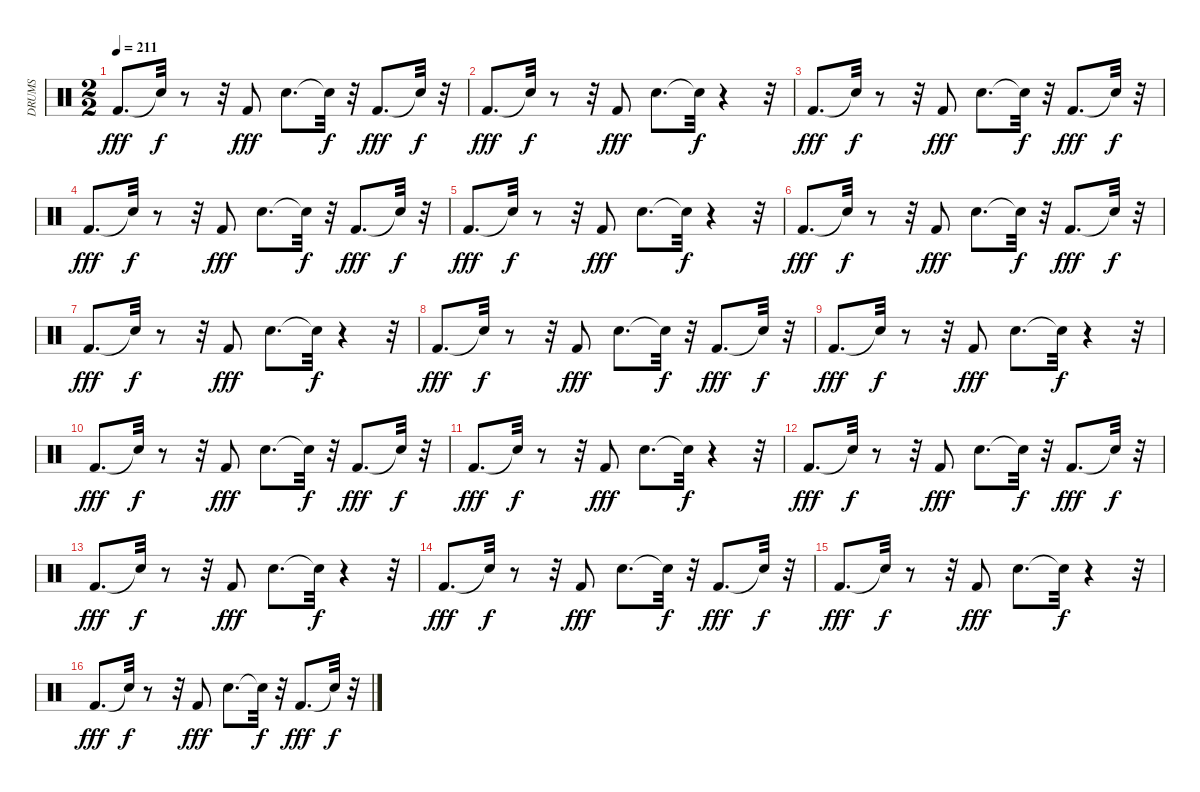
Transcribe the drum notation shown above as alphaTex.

\track ("DRUMS" "DRUMS") {instrument percussion}
\staff {score}
\articulation defaults
\ts (2 2)
\tempo 211
\clef neutral
\ks c "Kick (hit) 2".8{d dy fff} "Snare (hit)"{t}.32{dy f}
r.8 r.32 "Kick (hit) 2".8{dy fff} "Snare (hit) 2".8{d} "Snare (hit)"{t}.32{dy f} r.32 "Kick (hit) 2".8{d dy fff} "Snare (hit)"{t}.32{dy f} r.32 |
"Kick (hit) 2".8{d dy fff} "Snare (hit)"{t}.32{dy f} r.8 r.32 "Kick (hit) 2".8{dy fff} "Snare (hit) 2".8{d} "Snare (hit)"{t}.32{dy f} r.4 r.32 |
"Kick (hit) 2".8{d dy fff} "Snare (hit)"{t}.32{dy f} r.8 r.32 "Kick (hit) 2".8{dy fff} "Snare (hit) 2".8{d} "Snare (hit)"{t}.32{dy f} r.32 "Kick (hit) 2".8{d dy fff} "Snare (hit)"{t}.32{dy f} r.32 |
"Kick (hit) 2".8{d dy fff} "Snare (hit)"{t}.32{dy f} r.8 r.32 "Kick (hit) 2".8{dy fff} "Snare (hit) 2".8{d} "Snare (hit)"{t}.32{dy f} r.32 "Kick (hit) 2".8{d dy fff} "Snare (hit)"{t}.32{dy f} r.32 |
"Kick (hit) 2".8{d dy fff} "Snare (hit)"{t}.32{dy f} r.8 r.32 "Kick (hit) 2".8{dy fff} "Snare (hit) 2".8{d} "Snare (hit)"{t}.32{dy f} r.4 r.32 |
"Kick (hit) 2".8{d dy fff} "Snare (hit)"{t}.32{dy f} r.8 r.32 "Kick (hit) 2".8{dy fff} "Snare (hit) 2".8{d} "Snare (hit)"{t}.32{dy f} r.32 "Kick (hit) 2".8{d dy fff} "Snare (hit)"{t}.32{dy f} r.32 |
"Kick (hit) 2".8{d dy fff} "Snare (hit)"{t}.32{dy f} r.8 r.32 "Kick (hit) 2".8{dy fff} "Snare (hit) 2".8{d} "Snare (hit)"{t}.32{dy f} r.4 r.32 |
"Kick (hit) 2".8{d dy fff} "Snare (hit)"{t}.32{dy f} r.8 r.32 "Kick (hit) 2".8{dy fff} "Snare (hit) 2".8{d} "Snare (hit)"{t}.32{dy f} r.32 "Kick (hit) 2".8{d dy fff} "Snare (hit)"{t}.32{dy f} r.32 |
"Kick (hit) 2".8{d dy fff} "Snare (hit)"{t}.32{dy f} r.8 r.32 "Kick (hit) 2".8{dy fff} "Snare (hit) 2".8{d} "Snare (hit)"{t}.32{dy f} r.4 r.32 |
"Kick (hit) 2".8{d dy fff} "Snare (hit)"{t}.32{dy f} r.8 r.32 "Kick (hit) 2".8{dy fff} "Snare (hit) 2".8{d} "Snare (hit)"{t}.32{dy f} r.32 "Kick (hit) 2".8{d dy fff} "Snare (hit)"{t}.32{dy f} r.32 |
"Kick (hit) 2".8{d dy fff} "Snare (hit)"{t}.32{dy f} r.8 r.32 "Kick (hit) 2".8{dy fff} "Snare (hit) 2".8{d} "Snare (hit)"{t}.32{dy f} r.4 r.32 |
"Kick (hit) 2".8{d dy fff} "Snare (hit)"{t}.32{dy f} r.8 r.32 "Kick (hit) 2".8{dy fff} "Snare (hit) 2".8{d} "Snare (hit)"{t}.32{dy f} r.32 "Kick (hit) 2".8{d dy fff} "Snare (hit)"{t}.32{dy f} r.32 |
"Kick (hit) 2".8{d dy fff} "Snare (hit)"{t}.32{dy f} r.8 r.32 "Kick (hit) 2".8{dy fff} "Snare (hit) 2".8{d} "Snare (hit)"{t}.32{dy f} r.4 r.32 |
"Kick (hit) 2".8{d dy fff} "Snare (hit)"{t}.32{dy f} r.8 r.32 "Kick (hit) 2".8{dy fff} "Snare (hit) 2".8{d} "Snare (hit)"{t}.32{dy f} r.32 "Kick (hit) 2".8{d dy fff} "Snare (hit)"{t}.32{dy f} r.32 |
"Kick (hit) 2".8{d dy fff} "Snare (hit)"{t}.32{dy f} r.8 r.32 "Kick (hit) 2".8{dy fff} "Snare (hit) 2".8{d} "Snare (hit)"{t}.32{dy f} r.4 r.32 |
"Kick (hit) 2".8{d dy fff} "Snare (hit)"{t}.32{dy f} r.8 r.32 "Kick (hit) 2".8{dy fff} "Snare (hit) 2".8{d} "Snare (hit)"{t}.32{dy f} r.32 "Kick (hit) 2".8{d dy fff} "Snare (hit)"{t}.32{dy f} r.32
